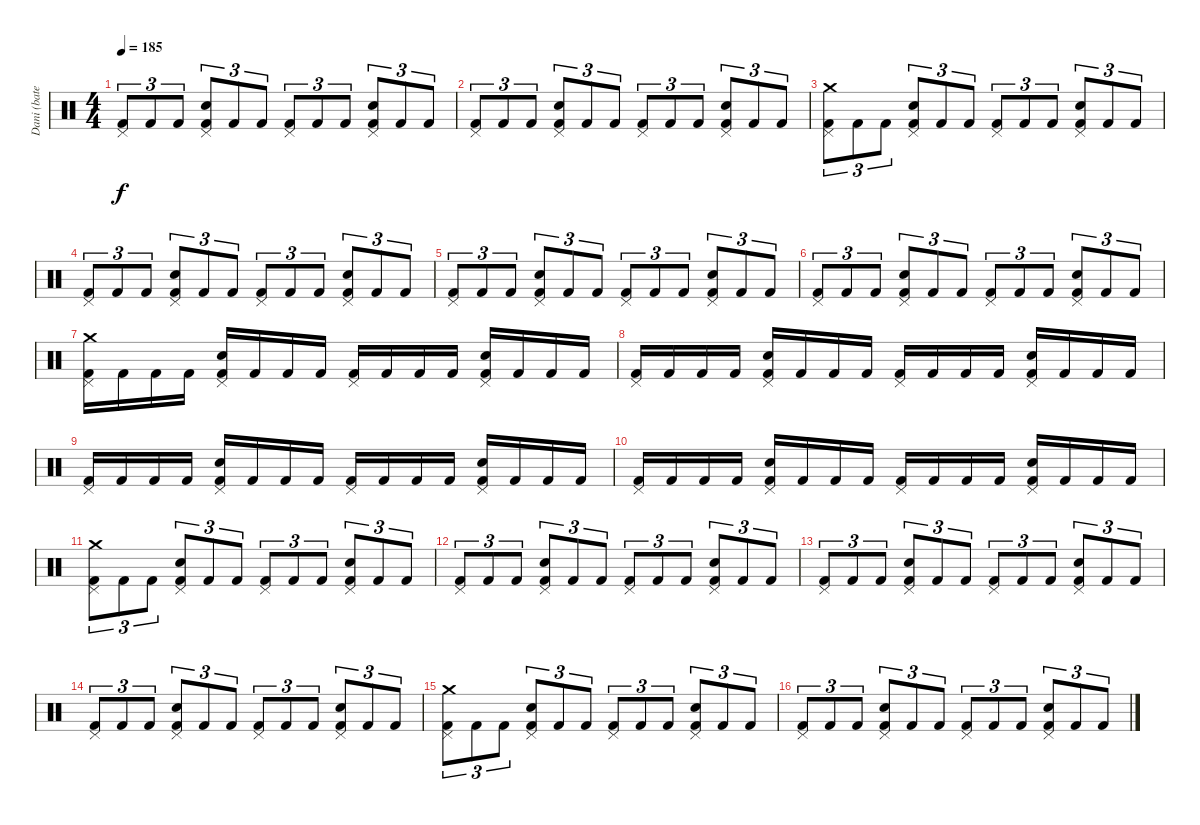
\track ("Dani (batería)" "Dani (bate") {instrument percussion}
\staff {score}
\articulation defaults
\ts (4 4)
\tempo 185
\clef neutral
\ks c
("Pedal Hi-Hat (hit)" "Kick (hit) 2").8{tu (3 2) dy f} "Kick (hit) 2".8{tu (3 2)} "Kick (hit) 2".8{tu (3 2)} ("Pedal Hi-Hat (hit)" "Snare (hit) 2" "Kick (hit) 2").8{tu (3 2)} "Kick (hit) 2".8{tu (3 2)} "Kick (hit) 2".8{tu (3 2)} ("Pedal Hi-Hat (hit)" "Kick (hit) 2").8{tu (3 2)} "Kick (hit) 2".8{tu (3 2)} "Kick (hit) 2".8{tu (3 2)} ("Pedal Hi-Hat (hit)" "Snare (hit) 2" "Kick (hit) 2").8{tu (3 2)} "Kick (hit) 2".8{tu (3 2)} "Kick (hit) 2".8{tu (3 2)} |
("Pedal Hi-Hat (hit)" "Kick (hit) 2").8{tu (3 2)} "Kick (hit) 2".8{tu (3 2)} "Kick (hit) 2".8{tu (3 2)} ("Pedal Hi-Hat (hit)" "Snare (hit) 2" "Kick (hit) 2").8{tu (3 2)} "Kick (hit) 2".8{tu (3 2)} "Kick (hit) 2".8{tu (3 2)} ("Pedal Hi-Hat (hit)" "Kick (hit) 2").8{tu (3 2)} "Kick (hit) 2".8{tu (3 2)} "Kick (hit) 2".8{tu (3 2)} ("Pedal Hi-Hat (hit)" "Snare (hit) 2" "Kick (hit) 2").8{tu (3 2)} "Kick (hit) 2".8{tu (3 2)} "Kick (hit) 2".8{tu (3 2)} |
("Crash medium (hit)" "Pedal Hi-Hat (hit)" "Kick (hit) 2").8{tu (3 2)} "Kick (hit) 2".8{tu (3 2)} "Kick (hit) 2".8{tu (3 2)} ("Pedal Hi-Hat (hit)" "Snare (hit) 2" "Kick (hit) 2").8{tu (3 2)} "Kick (hit) 2".8{tu (3 2)} "Kick (hit) 2".8{tu (3 2)} ("Pedal Hi-Hat (hit)" "Kick (hit) 2").8{tu (3 2)} "Kick (hit) 2".8{tu (3 2)} "Kick (hit) 2".8{tu (3 2)} ("Pedal Hi-Hat (hit)" "Snare (hit) 2" "Kick (hit) 2").8{tu (3 2)} "Kick (hit) 2".8{tu (3 2)} "Kick (hit) 2".8{tu (3 2)} |
("Pedal Hi-Hat (hit)" "Kick (hit) 2").8{tu (3 2)} "Kick (hit) 2".8{tu (3 2)} "Kick (hit) 2".8{tu (3 2)} ("Pedal Hi-Hat (hit)" "Snare (hit) 2" "Kick (hit) 2").8{tu (3 2)} "Kick (hit) 2".8{tu (3 2)} "Kick (hit) 2".8{tu (3 2)} ("Pedal Hi-Hat (hit)" "Kick (hit) 2").8{tu (3 2)} "Kick (hit) 2".8{tu (3 2)} "Kick (hit) 2".8{tu (3 2)} ("Pedal Hi-Hat (hit)" "Snare (hit) 2" "Kick (hit) 2").8{tu (3 2)} "Kick (hit) 2".8{tu (3 2)} "Kick (hit) 2".8{tu (3 2)} |
("Pedal Hi-Hat (hit)" "Kick (hit) 2").8{tu (3 2)} "Kick (hit) 2".8{tu (3 2)} "Kick (hit) 2".8{tu (3 2)} ("Pedal Hi-Hat (hit)" "Snare (hit) 2" "Kick (hit) 2").8{tu (3 2)} "Kick (hit) 2".8{tu (3 2)} "Kick (hit) 2".8{tu (3 2)} ("Pedal Hi-Hat (hit)" "Kick (hit) 2").8{tu (3 2)} "Kick (hit) 2".8{tu (3 2)} "Kick (hit) 2".8{tu (3 2)} ("Pedal Hi-Hat (hit)" "Snare (hit) 2" "Kick (hit) 2").8{tu (3 2)} "Kick (hit) 2".8{tu (3 2)} "Kick (hit) 2".8{tu (3 2)} |
("Pedal Hi-Hat (hit)" "Kick (hit) 2").8{tu (3 2)} "Kick (hit) 2".8{tu (3 2)} "Kick (hit) 2".8{tu (3 2)} ("Pedal Hi-Hat (hit)" "Snare (hit) 2" "Kick (hit) 2").8{tu (3 2)} "Kick (hit) 2".8{tu (3 2)} "Kick (hit) 2".8{tu (3 2)} ("Pedal Hi-Hat (hit)" "Kick (hit) 2").8{tu (3 2)} "Kick (hit) 2".8{tu (3 2)} "Kick (hit) 2".8{tu (3 2)} ("Pedal Hi-Hat (hit)" "Snare (hit) 2" "Kick (hit) 2").8{tu (3 2)} "Kick (hit) 2".8{tu (3 2)} "Kick (hit) 2".8{tu (3 2)} |
("Crash medium (hit)" "Pedal Hi-Hat (hit)" "Kick (hit) 2").16 "Kick (hit) 2".16 "Kick (hit) 2".16 "Kick (hit) 2".16 ("Pedal Hi-Hat (hit)" "Snare (hit) 2" "Kick (hit) 2").16 "Kick (hit) 2".16 "Kick (hit) 2".16 "Kick (hit) 2".16 ("Pedal Hi-Hat (hit)" "Kick (hit) 2").16 "Kick (hit) 2".16 "Kick (hit) 2".16 "Kick (hit) 2".16 ("Pedal Hi-Hat (hit)" "Snare (hit) 2" "Kick (hit) 2").16 "Kick (hit) 2".16 "Kick (hit) 2".16 "Kick (hit) 2".16 |
("Pedal Hi-Hat (hit)" "Kick (hit) 2").16 "Kick (hit) 2".16 "Kick (hit) 2".16 "Kick (hit) 2".16 ("Pedal Hi-Hat (hit)" "Snare (hit) 2" "Kick (hit) 2").16 "Kick (hit) 2".16 "Kick (hit) 2".16 "Kick (hit) 2".16 ("Pedal Hi-Hat (hit)" "Kick (hit) 2").16 "Kick (hit) 2".16 "Kick (hit) 2".16 "Kick (hit) 2".16 ("Pedal Hi-Hat (hit)" "Snare (hit) 2" "Kick (hit) 2").16 "Kick (hit) 2".16 "Kick (hit) 2".16 "Kick (hit) 2".16 |
("Pedal Hi-Hat (hit)" "Kick (hit) 2").16 "Kick (hit) 2".16 "Kick (hit) 2".16 "Kick (hit) 2".16 ("Pedal Hi-Hat (hit)" "Snare (hit) 2" "Kick (hit) 2").16 "Kick (hit) 2".16 "Kick (hit) 2".16 "Kick (hit) 2".16 ("Pedal Hi-Hat (hit)" "Kick (hit) 2").16 "Kick (hit) 2".16 "Kick (hit) 2".16 "Kick (hit) 2".16 ("Pedal Hi-Hat (hit)" "Snare (hit) 2" "Kick (hit) 2").16 "Kick (hit) 2".16 "Kick (hit) 2".16 "Kick (hit) 2".16 |
("Pedal Hi-Hat (hit)" "Kick (hit) 2").16 "Kick (hit) 2".16 "Kick (hit) 2".16 "Kick (hit) 2".16 ("Pedal Hi-Hat (hit)" "Snare (hit) 2" "Kick (hit) 2").16 "Kick (hit) 2".16 "Kick (hit) 2".16 "Kick (hit) 2".16 ("Pedal Hi-Hat (hit)" "Kick (hit) 2").16 "Kick (hit) 2".16 "Kick (hit) 2".16 "Kick (hit) 2".16 ("Pedal Hi-Hat (hit)" "Snare (hit) 2" "Kick (hit) 2").16 "Kick (hit) 2".16 "Kick (hit) 2".16 "Kick (hit) 2".16 |
("Crash medium (hit)" "Pedal Hi-Hat (hit)" "Kick (hit) 2").8{tu (3 2)} "Kick (hit) 2".8{tu (3 2)} "Kick (hit) 2".8{tu (3 2)} ("Pedal Hi-Hat (hit)" "Snare (hit) 2" "Kick (hit) 2").8{tu (3 2)} "Kick (hit) 2".8{tu (3 2)} "Kick (hit) 2".8{tu (3 2)} ("Pedal Hi-Hat (hit)" "Kick (hit) 2").8{tu (3 2)} "Kick (hit) 2".8{tu (3 2)} "Kick (hit) 2".8{tu (3 2)} ("Pedal Hi-Hat (hit)" "Snare (hit) 2" "Kick (hit) 2").8{tu (3 2)} "Kick (hit) 2".8{tu (3 2)} "Kick (hit) 2".8{tu (3 2)} |
("Pedal Hi-Hat (hit)" "Kick (hit) 2").8{tu (3 2)} "Kick (hit) 2".8{tu (3 2)} "Kick (hit) 2".8{tu (3 2)} ("Pedal Hi-Hat (hit)" "Snare (hit) 2" "Kick (hit) 2").8{tu (3 2)} "Kick (hit) 2".8{tu (3 2)} "Kick (hit) 2".8{tu (3 2)} ("Pedal Hi-Hat (hit)" "Kick (hit) 2").8{tu (3 2)} "Kick (hit) 2".8{tu (3 2)} "Kick (hit) 2".8{tu (3 2)} ("Pedal Hi-Hat (hit)" "Snare (hit) 2" "Kick (hit) 2").8{tu (3 2)} "Kick (hit) 2".8{tu (3 2)} "Kick (hit) 2".8{tu (3 2)} |
("Pedal Hi-Hat (hit)" "Kick (hit) 2").8{tu (3 2)} "Kick (hit) 2".8{tu (3 2)} "Kick (hit) 2".8{tu (3 2)} ("Pedal Hi-Hat (hit)" "Snare (hit) 2" "Kick (hit) 2").8{tu (3 2)} "Kick (hit) 2".8{tu (3 2)} "Kick (hit) 2".8{tu (3 2)} ("Pedal Hi-Hat (hit)" "Kick (hit) 2").8{tu (3 2)} "Kick (hit) 2".8{tu (3 2)} "Kick (hit) 2".8{tu (3 2)} ("Pedal Hi-Hat (hit)" "Snare (hit) 2" "Kick (hit) 2").8{tu (3 2)} "Kick (hit) 2".8{tu (3 2)} "Kick (hit) 2".8{tu (3 2)} |
("Pedal Hi-Hat (hit)" "Kick (hit) 2").8{tu (3 2)} "Kick (hit) 2".8{tu (3 2)} "Kick (hit) 2".8{tu (3 2)} ("Pedal Hi-Hat (hit)" "Snare (hit) 2" "Kick (hit) 2").8{tu (3 2)} "Kick (hit) 2".8{tu (3 2)} "Kick (hit) 2".8{tu (3 2)} ("Pedal Hi-Hat (hit)" "Kick (hit) 2").8{tu (3 2)} "Kick (hit) 2".8{tu (3 2)} "Kick (hit) 2".8{tu (3 2)} ("Pedal Hi-Hat (hit)" "Snare (hit) 2" "Kick (hit) 2").8{tu (3 2)} "Kick (hit) 2".8{tu (3 2)} "Kick (hit) 2".8{tu (3 2)} |
("Crash medium (hit)" "Pedal Hi-Hat (hit)" "Kick (hit) 2").8{tu (3 2)} "Kick (hit) 2".8{tu (3 2)} "Kick (hit) 2".8{tu (3 2)} ("Pedal Hi-Hat (hit)" "Snare (hit) 2" "Kick (hit) 2").8{tu (3 2)} "Kick (hit) 2".8{tu (3 2)} "Kick (hit) 2".8{tu (3 2)} ("Pedal Hi-Hat (hit)" "Kick (hit) 2").8{tu (3 2)} "Kick (hit) 2".8{tu (3 2)} "Kick (hit) 2".8{tu (3 2)} ("Pedal Hi-Hat (hit)" "Snare (hit) 2" "Kick (hit) 2").8{tu (3 2)} "Kick (hit) 2".8{tu (3 2)} "Kick (hit) 2".8{tu (3 2)} |
("Pedal Hi-Hat (hit)" "Kick (hit) 2").8{tu (3 2)} "Kick (hit) 2".8{tu (3 2)} "Kick (hit) 2".8{tu (3 2)} ("Pedal Hi-Hat (hit)" "Snare (hit) 2" "Kick (hit) 2").8{tu (3 2)} "Kick (hit) 2".8{tu (3 2)} "Kick (hit) 2".8{tu (3 2)} ("Pedal Hi-Hat (hit)" "Kick (hit) 2").8{tu (3 2)} "Kick (hit) 2".8{tu (3 2)} "Kick (hit) 2".8{tu (3 2)} ("Pedal Hi-Hat (hit)" "Snare (hit) 2" "Kick (hit) 2").8{tu (3 2)} "Kick (hit) 2".8{tu (3 2)} "Kick (hit) 2".8{tu (3 2)}
